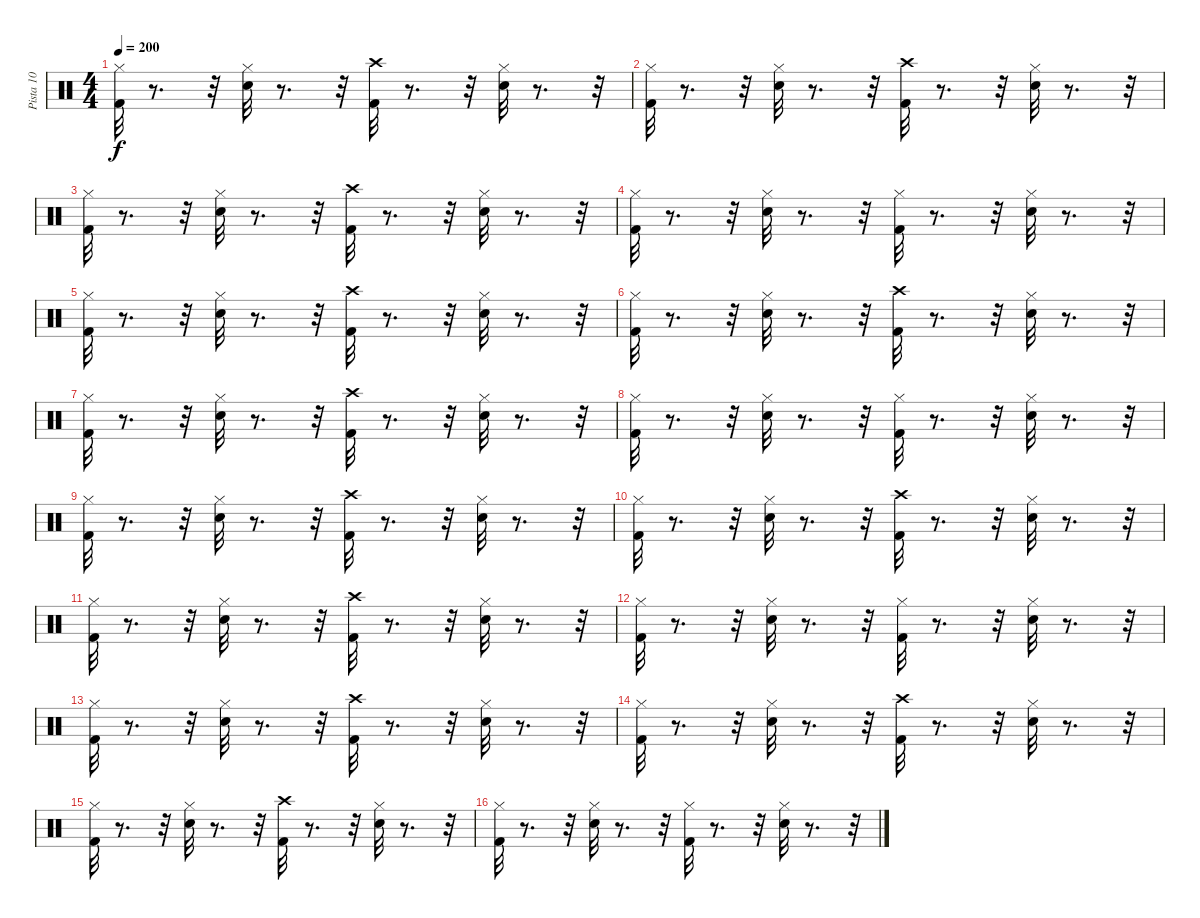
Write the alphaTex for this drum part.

\track ("Pista 10" "Pista 10") {instrument percussion}
\staff {score}
\articulation defaults
\ts (4 4)
\tempo 200
\clef neutral
\ks c
("Kick (hit) 2" "Hi-Hat (closed)").32{dy f} r.8{d} r.32 ("Snare (hit) 2" "Hi-Hat (closed)").32 r.8{d} r.32 ("Crash high (hit)" "Kick (hit) 2").32 r.8{d} r.32 ("Snare (hit) 2" "Hi-Hat (closed)").32 r.8{d} r.32 |
("Kick (hit) 2" "Hi-Hat (closed)").32 r.8{d} r.32 ("Snare (hit) 2" "Hi-Hat (closed)").32 r.8{d} r.32 ("Crash high (hit)" "Kick (hit) 2").32 r.8{d} r.32 ("Snare (hit) 2" "Hi-Hat (closed)").32 r.8{d} r.32 |
("Kick (hit) 2" "Hi-Hat (closed)").32 r.8{d} r.32 ("Snare (hit) 2" "Hi-Hat (closed)").32 r.8{d} r.32 ("Crash high (hit)" "Kick (hit) 2").32 r.8{d} r.32 ("Snare (hit) 2" "Hi-Hat (closed)").32 r.8{d} r.32 |
("Kick (hit) 2" "Hi-Hat (closed)").32 r.8{d} r.32 ("Snare (hit) 2" "Hi-Hat (closed)").32 r.8{d} r.32 ("Kick (hit) 2" "Hi-Hat (closed)").32 r.8{d} r.32 ("Snare (hit) 2" "Hi-Hat (closed)").32 r.8{d} r.32 |
("Kick (hit) 2" "Hi-Hat (closed)").32 r.8{d} r.32 ("Snare (hit) 2" "Hi-Hat (closed)").32 r.8{d} r.32 ("Crash high (hit)" "Kick (hit) 2").32 r.8{d} r.32 ("Snare (hit) 2" "Hi-Hat (closed)").32 r.8{d} r.32 |
("Kick (hit) 2" "Hi-Hat (closed)").32 r.8{d} r.32 ("Snare (hit) 2" "Hi-Hat (closed)").32 r.8{d} r.32 ("Crash high (hit)" "Kick (hit) 2").32 r.8{d} r.32 ("Snare (hit) 2" "Hi-Hat (closed)").32 r.8{d} r.32 |
("Kick (hit) 2" "Hi-Hat (closed)").32 r.8{d} r.32 ("Snare (hit) 2" "Hi-Hat (closed)").32 r.8{d} r.32 ("Crash high (hit)" "Kick (hit) 2").32 r.8{d} r.32 ("Snare (hit) 2" "Hi-Hat (closed)").32 r.8{d} r.32 |
("Kick (hit) 2" "Hi-Hat (closed)").32 r.8{d} r.32 ("Snare (hit) 2" "Hi-Hat (closed)").32 r.8{d} r.32 ("Hi-Hat (closed)" "Kick (hit) 2").32 r.8{d} r.32 ("Snare (hit) 2" "Hi-Hat (closed)").32 r.8{d} r.32 |
("Kick (hit) 2" "Hi-Hat (closed)").32 r.8{d} r.32 ("Snare (hit) 2" "Hi-Hat (closed)").32 r.8{d} r.32 ("Crash high (hit)" "Kick (hit) 2").32 r.8{d} r.32 ("Snare (hit) 2" "Hi-Hat (closed)").32 r.8{d} r.32 |
("Kick (hit) 2" "Hi-Hat (closed)").32 r.8{d} r.32 ("Snare (hit) 2" "Hi-Hat (closed)").32 r.8{d} r.32 ("Crash high (hit)" "Kick (hit) 2").32 r.8{d} r.32 ("Snare (hit) 2" "Hi-Hat (closed)").32 r.8{d} r.32 |
("Kick (hit) 2" "Hi-Hat (closed)").32 r.8{d} r.32 ("Snare (hit) 2" "Hi-Hat (closed)").32 r.8{d} r.32 ("Crash high (hit)" "Kick (hit) 2").32 r.8{d} r.32 ("Snare (hit) 2" "Hi-Hat (closed)").32 r.8{d} r.32 |
("Kick (hit) 2" "Hi-Hat (closed)").32 r.8{d} r.32 ("Snare (hit) 2" "Hi-Hat (closed)").32 r.8{d} r.32 ("Kick (hit) 2" "Hi-Hat (closed)").32 r.8{d} r.32 ("Snare (hit) 2" "Hi-Hat (closed)").32 r.8{d} r.32 |
("Kick (hit) 2" "Hi-Hat (closed)").32 r.8{d} r.32 ("Snare (hit) 2" "Hi-Hat (closed)").32 r.8{d} r.32 ("Crash high (hit)" "Kick (hit) 2").32 r.8{d} r.32 ("Snare (hit) 2" "Hi-Hat (closed)").32 r.8{d} r.32 |
("Kick (hit) 2" "Hi-Hat (closed)").32 r.8{d} r.32 ("Snare (hit) 2" "Hi-Hat (closed)").32 r.8{d} r.32 ("Crash high (hit)" "Kick (hit) 2").32 r.8{d} r.32 ("Snare (hit) 2" "Hi-Hat (closed)").32 r.8{d} r.32 |
("Kick (hit) 2" "Hi-Hat (closed)").32 r.8{d} r.32 ("Snare (hit) 2" "Hi-Hat (closed)").32 r.8{d} r.32 ("Crash high (hit)" "Kick (hit) 2").32 r.8{d} r.32 ("Snare (hit) 2" "Hi-Hat (closed)").32 r.8{d} r.32 |
("Kick (hit) 2" "Hi-Hat (closed)").32 r.8{d} r.32 ("Snare (hit) 2" "Hi-Hat (closed)").32 r.8{d} r.32 ("Kick (hit) 2" "Hi-Hat (closed)").32 r.8{d} r.32 ("Snare (hit) 2" "Hi-Hat (closed)").32 r.8{d} r.32
